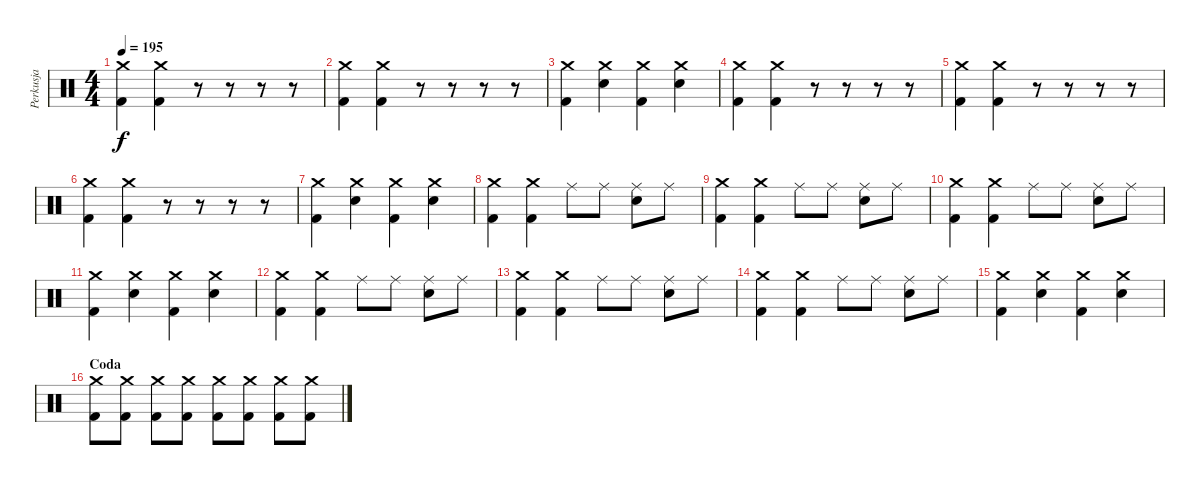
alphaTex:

\track ("Perkusja" "Perkusja") {instrument percussion}
\staff {score}
\articulation defaults
\ts (4 4)
\tempo 195
\clef neutral
\ks c
("Crash medium (hit)" "Kick (hit) 2").4{dy f} ("Crash medium (hit)" "Kick (hit) 2").4 r.8 r.8 r.8 r.8 |
("Crash medium (hit)" "Kick (hit) 2").4 ("Crash medium (hit)" "Kick (hit) 2").4 r.8 r.8 r.8 r.8 |
("Crash medium (hit)" "Kick (hit) 2").4 ("Crash medium (hit)" "Snare (hit) 2").4 ("Crash medium (hit)" "Kick (hit) 2").4 ("Crash medium (hit)" "Snare (hit) 2").4 |
("Crash medium (hit)" "Kick (hit) 2").4 ("Crash medium (hit)" "Kick (hit) 2").4 r.8 r.8 r.8 r.8 |
("Crash medium (hit)" "Kick (hit) 2").4 ("Crash medium (hit)" "Kick (hit) 2").4 r.8 r.8 r.8 r.8 |
("Crash medium (hit)" "Kick (hit) 2").4 ("Crash medium (hit)" "Kick (hit) 2").4 r.8 r.8 r.8 r.8 |
("Crash medium (hit)" "Kick (hit) 2").4 ("Crash medium (hit)" "Snare (hit) 2").4 ("Crash medium (hit)" "Kick (hit) 2").4 ("Crash medium (hit)" "Snare (hit) 2").4 |
("Crash medium (hit)" "Kick (hit) 2").4 ("Crash medium (hit)" "Kick (hit) 2").4 "Ride (middle)".8 "Ride (middle)".8 ("Ride (middle)" "Snare (hit) 2").8 "Ride (middle)".8 |
("Crash medium (hit)" "Kick (hit) 2").4 ("Crash medium (hit)" "Kick (hit) 2").4 "Ride (middle)".8 "Ride (middle)".8 ("Ride (middle)" "Snare (hit) 2").8 "Ride (middle)".8 |
("Crash medium (hit)" "Kick (hit) 2").4 ("Crash medium (hit)" "Kick (hit) 2").4 "Ride (middle)".8 "Ride (middle)".8 ("Ride (middle)" "Snare (hit) 2").8 "Ride (middle)".8 |
("Crash medium (hit)" "Kick (hit) 2").4 ("Crash medium (hit)" "Snare (hit) 2").4 ("Crash medium (hit)" "Kick (hit) 2").4 ("Crash medium (hit)" "Snare (hit) 2").4 |
("Crash medium (hit)" "Kick (hit) 2").4 ("Crash medium (hit)" "Kick (hit) 2").4 "Ride (middle)".8 "Ride (middle)".8 ("Ride (middle)" "Snare (hit) 2").8 "Ride (middle)".8 |
("Crash medium (hit)" "Kick (hit) 2").4 ("Crash medium (hit)" "Kick (hit) 2").4 "Ride (middle)".8 "Ride (middle)".8 ("Ride (middle)" "Snare (hit) 2").8 "Ride (middle)".8 |
("Crash medium (hit)" "Kick (hit) 2").4 ("Crash medium (hit)" "Kick (hit) 2").4 "Ride (middle)".8 "Ride (middle)".8 ("Ride (middle)" "Snare (hit) 2").8 "Ride (middle)".8 |
("Crash medium (hit)" "Kick (hit) 2").4 ("Crash medium (hit)" "Snare (hit) 2").4 ("Crash medium (hit)" "Kick (hit) 2").4 ("Crash medium (hit)" "Snare (hit) 2").4 |
\section ("" "Coda")
("Crash medium (hit)" "Kick (hit) 2").8 ("Crash medium (hit)" "Kick (hit) 2").8 ("Crash medium (hit)" "Kick (hit) 2").8 ("Crash medium (hit)" "Kick (hit) 2").8 ("Crash medium (hit)" "Kick (hit) 2").8 ("Crash medium (hit)" "Kick (hit) 2").8 ("Crash medium (hit)" "Kick (hit) 2").8 ("Crash medium (hit)" "Kick (hit) 2").8
